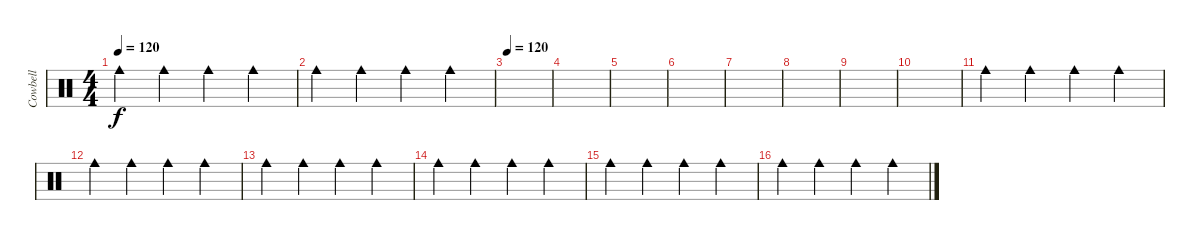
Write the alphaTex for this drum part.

\track ("Cowbell" "Cowbell") {instrument percussion}
\staff {score}
\articulation defaults
\ts (4 4)
\tempo 120
\clef neutral
\ks c "Cowbell medium (hit)".4{dy f} "Cowbell medium (hit)".4 "Cowbell medium (hit)".4 "Cowbell medium (hit)".4
|
"Cowbell medium (hit)".4 "Cowbell medium (hit)".4 "Cowbell medium (hit)".4 "Cowbell medium (hit)".4 |
\tempo 120
|
|
|
|
|
|
|
|
"Cowbell medium (hit)".4 "Cowbell medium (hit)".4 "Cowbell medium (hit)".4 "Cowbell medium (hit)".4 |
"Cowbell medium (hit)".4 "Cowbell medium (hit)".4 "Cowbell medium (hit)".4 "Cowbell medium (hit)".4 |
"Cowbell medium (hit)".4 "Cowbell medium (hit)".4 "Cowbell medium (hit)".4 "Cowbell medium (hit)".4 |
"Cowbell medium (hit)".4 "Cowbell medium (hit)".4 "Cowbell medium (hit)".4 "Cowbell medium (hit)".4 |
"Cowbell medium (hit)".4 "Cowbell medium (hit)".4 "Cowbell medium (hit)".4 "Cowbell medium (hit)".4 |
"Cowbell medium (hit)".4 "Cowbell medium (hit)".4 "Cowbell medium (hit)".4 "Cowbell medium (hit)".4
